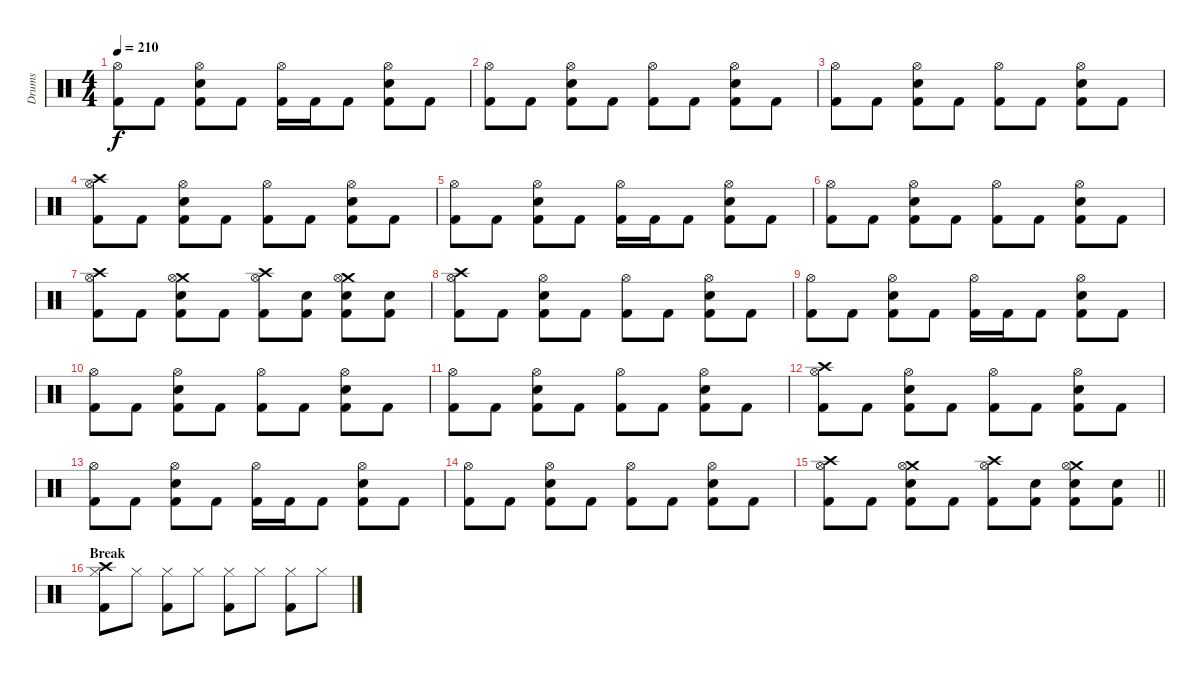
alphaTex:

\track ("Drums" "Drums") {instrument percussion}
\staff {score}
\articulation defaults
\ts (4 4)
\tempo 210
\clef neutral
\ks c
("Hi-Hat (open)" "Kick (hit) 2").8{dy f} "Kick (hit) 2".8 ("Hi-Hat (open)" "Snare (hit) 2" "Kick (hit) 2").8 "Kick (hit) 2".8 ("Hi-Hat (open)" "Kick (hit) 2").16 "Kick (hit) 2".16 "Kick (hit) 2".8 ("Hi-Hat (open)" "Snare (hit) 2" "Kick (hit) 2").8 "Kick (hit) 2".8 |
("Hi-Hat (open)" "Kick (hit) 2").8 "Kick (hit) 2".8 ("Hi-Hat (open)" "Snare (hit) 2" "Kick (hit) 2").8 "Kick (hit) 2".8 ("Hi-Hat (open)" "Kick (hit) 2").8 "Kick (hit) 2".8 ("Hi-Hat (open)" "Snare (hit) 2" "Kick (hit) 2").8 "Kick (hit) 2".8 |
("Hi-Hat (open)" "Kick (hit) 2").8 "Kick (hit) 2".8 ("Hi-Hat (open)" "Snare (hit) 2" "Kick (hit) 2").8 "Kick (hit) 2".8 ("Hi-Hat (open)" "Kick (hit) 2").8 "Kick (hit) 2".8 ("Hi-Hat (open)" "Snare (hit) 2" "Kick (hit) 2").8 "Kick (hit) 2".8 |
("Crash high (hit)" "Hi-Hat (open)" "Kick (hit) 2").8 "Kick (hit) 2".8 ("Hi-Hat (open)" "Snare (hit) 2" "Kick (hit) 2").8 "Kick (hit) 2".8 ("Hi-Hat (open)" "Kick (hit) 2").8 "Kick (hit) 2".8 ("Hi-Hat (open)" "Snare (hit) 2" "Kick (hit) 2").8 "Kick (hit) 2".8 |
("Hi-Hat (open)" "Kick (hit) 2").8 "Kick (hit) 2".8 ("Hi-Hat (open)" "Snare (hit) 2" "Kick (hit) 2").8 "Kick (hit) 2".8 ("Hi-Hat (open)" "Kick (hit) 2").16 "Kick (hit) 2".16 "Kick (hit) 2".8 ("Hi-Hat (open)" "Snare (hit) 2" "Kick (hit) 2").8 "Kick (hit) 2".8 |
("Hi-Hat (open)" "Kick (hit) 2").8 "Kick (hit) 2".8 ("Hi-Hat (open)" "Snare (hit) 2" "Kick (hit) 2").8 "Kick (hit) 2".8 ("Hi-Hat (open)" "Kick (hit) 2").8 "Kick (hit) 2".8 ("Hi-Hat (open)" "Snare (hit) 2" "Kick (hit) 2").8 "Kick (hit) 2".8 |
("Crash high (hit)" "Hi-Hat (open)" "Kick (hit) 2").8 "Kick (hit) 2".8 ("Crash medium (hit)" "Hi-Hat (open)" "Snare (hit) 2" "Kick (hit) 2").8 "Kick (hit) 2".8 ("Crash high (hit)" "Hi-Hat (open)" "Kick (hit) 2").8 ("Snare (hit) 2" "Kick (hit) 2").8 ("Crash medium (hit)" "Hi-Hat (open)" "Snare (hit) 2" "Kick (hit) 2").8 ("Snare (hit) 2" "Kick (hit) 2").8 |
("Crash high (hit)" "Hi-Hat (open)" "Kick (hit) 2").8 "Kick (hit) 2".8 ("Hi-Hat (open)" "Snare (hit) 2" "Kick (hit) 2").8 "Kick (hit) 2".8 ("Hi-Hat (open)" "Kick (hit) 2").8 "Kick (hit) 2".8 ("Hi-Hat (open)" "Snare (hit) 2" "Kick (hit) 2").8 "Kick (hit) 2".8 |
("Hi-Hat (open)" "Kick (hit) 2").8 "Kick (hit) 2".8 ("Hi-Hat (open)" "Snare (hit) 2" "Kick (hit) 2").8 "Kick (hit) 2".8 ("Hi-Hat (open)" "Kick (hit) 2").16 "Kick (hit) 2".16 "Kick (hit) 2".8 ("Hi-Hat (open)" "Snare (hit) 2" "Kick (hit) 2").8 "Kick (hit) 2".8 |
("Hi-Hat (open)" "Kick (hit) 2").8 "Kick (hit) 2".8 ("Hi-Hat (open)" "Snare (hit) 2" "Kick (hit) 2").8 "Kick (hit) 2".8 ("Hi-Hat (open)" "Kick (hit) 2").8 "Kick (hit) 2".8 ("Hi-Hat (open)" "Snare (hit) 2" "Kick (hit) 2").8 "Kick (hit) 2".8 |
("Hi-Hat (open)" "Kick (hit) 2").8 "Kick (hit) 2".8 ("Hi-Hat (open)" "Snare (hit) 2" "Kick (hit) 2").8 "Kick (hit) 2".8 ("Hi-Hat (open)" "Kick (hit) 2").8 "Kick (hit) 2".8 ("Hi-Hat (open)" "Snare (hit) 2" "Kick (hit) 2").8 "Kick (hit) 2".8 |
("Crash high (hit)" "Hi-Hat (open)" "Kick (hit) 2").8 "Kick (hit) 2".8 ("Hi-Hat (open)" "Snare (hit) 2" "Kick (hit) 2").8 "Kick (hit) 2".8 ("Hi-Hat (open)" "Kick (hit) 2").8 "Kick (hit) 2".8 ("Hi-Hat (open)" "Snare (hit) 2" "Kick (hit) 2").8 "Kick (hit) 2".8 |
("Hi-Hat (open)" "Kick (hit) 2").8 "Kick (hit) 2".8 ("Hi-Hat (open)" "Snare (hit) 2" "Kick (hit) 2").8 "Kick (hit) 2".8 ("Hi-Hat (open)" "Kick (hit) 2").16 "Kick (hit) 2".16 "Kick (hit) 2".8 ("Hi-Hat (open)" "Snare (hit) 2" "Kick (hit) 2").8 "Kick (hit) 2".8 |
("Hi-Hat (open)" "Kick (hit) 2").8 "Kick (hit) 2".8 ("Hi-Hat (open)" "Snare (hit) 2" "Kick (hit) 2").8 "Kick (hit) 2".8 ("Hi-Hat (open)" "Kick (hit) 2").8 "Kick (hit) 2".8 ("Hi-Hat (open)" "Snare (hit) 2" "Kick (hit) 2").8 "Kick (hit) 2".8 |
\barLineRight lightlight
("Crash high (hit)" "Hi-Hat (open)" "Kick (hit) 2").8 "Kick (hit) 2".8 ("Crash medium (hit)" "Hi-Hat (open)" "Snare (hit) 2" "Kick (hit) 2").8 "Kick (hit) 2".8 ("Crash high (hit)" "Hi-Hat (open)" "Kick (hit) 2").8 ("Snare (hit) 2" "Kick (hit) 2").8 ("Crash medium (hit)" "Hi-Hat (open)" "Snare (hit) 2" "Kick (hit) 2").8 ("Snare (hit) 2" "Kick (hit) 2").8 |
\section ("" "Break")
("Crash high (hit)" "Hi-Hat (closed)" "Kick (hit) 2").8 "Hi-Hat (closed)".8 ("Hi-Hat (closed)" "Kick (hit) 2").8 "Hi-Hat (closed)".8 ("Hi-Hat (closed)" "Kick (hit) 2").8 "Hi-Hat (closed)".8 ("Hi-Hat (closed)" "Kick (hit) 2").8 "Hi-Hat (closed)".8
